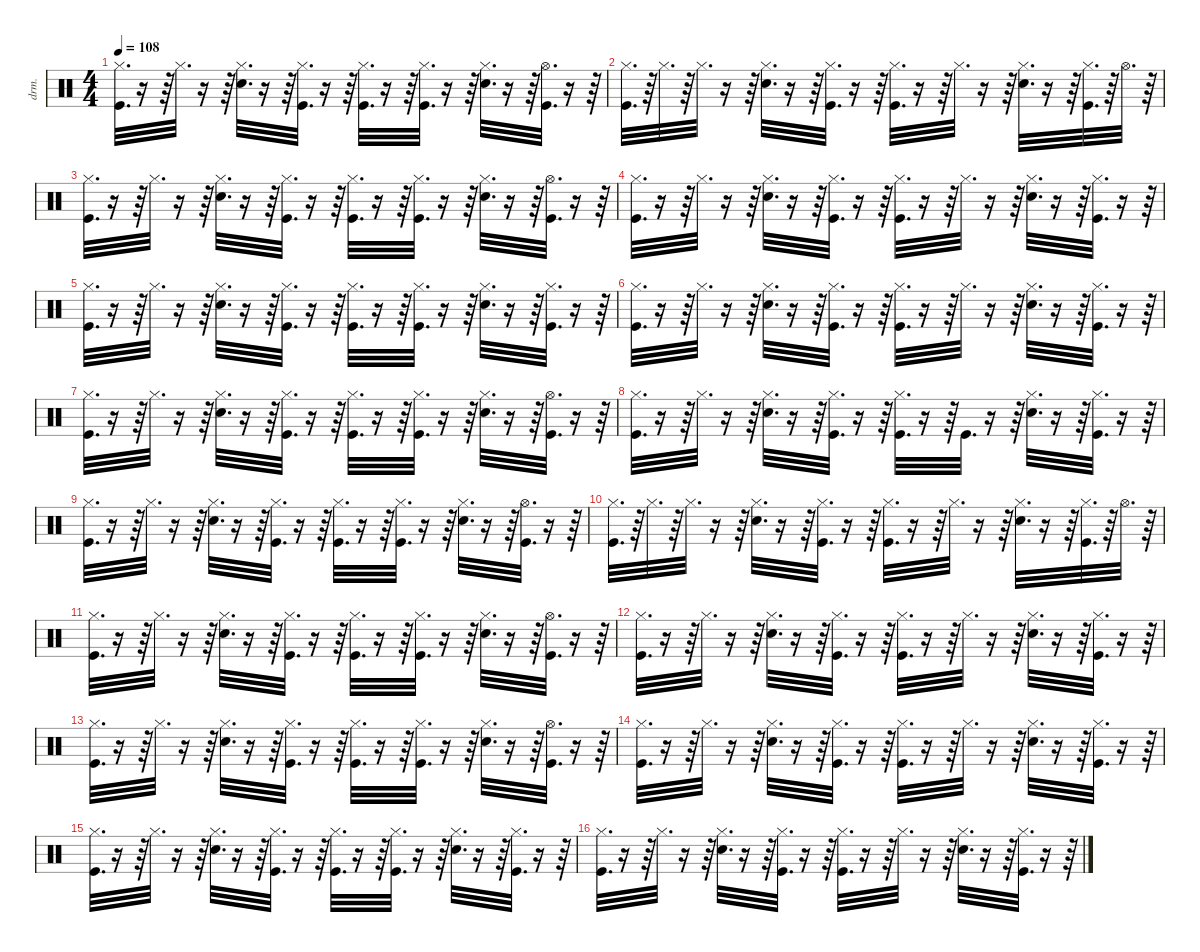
\defaultSystemsLayout 4
\hideDynamics
\bracketExtendMode nobrackets
\otherSystemsTrackNameOrientation horizontal
\track ("Percussions" "drm.") {instrument percussion}
\staff {score}
\articulation defaults
\ts (4 4)
\tempo 108
\clef neutral
\ks c
("Hi-Hat (closed)" "Kick (hit)").32{d dy f} r.16 r.64 "Hi-Hat (closed)".32{d} r.16 r.64 ("Hi-Hat (closed)" "Snare (hit) 2").32{d} r.16 r.64 ("Hi-Hat (closed)" "Kick (hit)").32{d} r.16 r.64 ("Hi-Hat (closed)" "Kick (hit)").32{d} r.16 r.64 ("Hi-Hat (closed)" "Kick (hit)").32{d} r.16 r.64 ("Hi-Hat (closed)" "Snare (hit) 2").32{d} r.16 r.64 ("Hi-Hat (open)" "Kick (hit)").32{d} r.16 r.64 |
("Hi-Hat (closed)" "Kick (hit)").32{d} r.64 "Hi-Hat (closed)".32{d} r.64 "Hi-Hat (closed)".32{d} r.16 r.64 ("Hi-Hat (closed)" "Snare (hit) 2").32{d} r.16 r.64 ("Hi-Hat (closed)" "Kick (hit)").32{d} r.16 r.64 ("Hi-Hat (closed)" "Kick (hit)").32{d} r.16 r.64 "Hi-Hat (closed)".32{d} r.16 r.64 ("Hi-Hat (closed)" "Snare (hit) 2").32{d} r.16 r.64 ("Hi-Hat (closed)" "Kick (hit)").32{d} r.64 "Hi-Hat (open)".32{d} r.64 |
("Hi-Hat (closed)" "Kick (hit)").32{d} r.16 r.64 "Hi-Hat (closed)".32{d} r.16 r.64 ("Hi-Hat (closed)" "Snare (hit) 2").32{d} r.16 r.64 ("Hi-Hat (closed)" "Kick (hit)").32{d} r.16 r.64 ("Hi-Hat (closed)" "Kick (hit)").32{d} r.16 r.64 ("Hi-Hat (closed)" "Kick (hit)").32{d} r.16 r.64 ("Hi-Hat (closed)" "Snare (hit) 2").32{d} r.16 r.64 ("Hi-Hat (open)" "Kick (hit)").32{d} r.16 r.64 |
("Hi-Hat (closed)" "Kick (hit)").32{d} r.16 r.64 "Hi-Hat (closed)".32{d} r.16 r.64 ("Hi-Hat (closed)" "Snare (hit) 2").32{d} r.16 r.64 ("Hi-Hat (closed)" "Kick (hit)").32{d} r.16 r.64 ("Hi-Hat (closed)" "Kick (hit)").32{d} r.16 r.64 "Hi-Hat (closed)".32{d} r.16 r.64 ("Hi-Hat (closed)" "Snare (hit) 2").32{d} r.16 r.64 ("Hi-Hat (closed)" "Kick (hit)").32{d} r.16 r.64 |
("Hi-Hat (closed)" "Kick (hit)").32{d} r.16 r.64 "Hi-Hat (closed)".32{d} r.16 r.64 ("Hi-Hat (closed)" "Snare (hit) 2").32{d} r.16 r.64 ("Hi-Hat (closed)" "Kick (hit)").32{d} r.16 r.64 ("Hi-Hat (closed)" "Kick (hit)").32{d} r.16 r.64 ("Hi-Hat (closed)" "Kick (hit)").32{d} r.16 r.64 ("Hi-Hat (closed)" "Snare (hit) 2").32{d} r.16 r.64 ("Hi-Hat (closed)" "Kick (hit)").32{d} r.16 r.64 |
("Hi-Hat (closed)" "Kick (hit)").32{d} r.16 r.64 "Hi-Hat (closed)".32{d} r.16 r.64 ("Hi-Hat (closed)" "Snare (hit) 2").32{d} r.16 r.64 ("Hi-Hat (closed)" "Kick (hit)").32{d} r.16 r.64 ("Hi-Hat (closed)" "Kick (hit)").32{d} r.16 r.64 "Hi-Hat (closed)".32{d} r.16 r.64 ("Hi-Hat (closed)" "Snare (hit) 2").32{d} r.16 r.64 ("Hi-Hat (closed)" "Kick (hit)").32{d} r.16 r.64 |
("Hi-Hat (closed)" "Kick (hit)").32{d} r.16 r.64 "Hi-Hat (closed)".32{d} r.16 r.64 ("Hi-Hat (closed)" "Snare (hit) 2").32{d} r.16 r.64 ("Hi-Hat (closed)" "Kick (hit)").32{d} r.16 r.64 ("Hi-Hat (closed)" "Kick (hit)").32{d} r.16 r.64 ("Hi-Hat (closed)" "Kick (hit)").32{d} r.16 r.64 ("Hi-Hat (closed)" "Snare (hit) 2").32{d} r.16 r.64 ("Hi-Hat (open)" "Kick (hit)").32{d} r.16 r.64 |
("Hi-Hat (closed)" "Kick (hit)").32{d} r.16 r.64 "Hi-Hat (closed)".32{d} r.16 r.64 ("Hi-Hat (closed)" "Snare (hit) 2").32{d} r.16 r.64 ("Hi-Hat (closed)" "Kick (hit)").32{d} r.16 r.64 ("Hi-Hat (closed)" "Kick (hit)").32{d} r.16 r.64 "Kick (hit)".32{d} r.16 r.64 ("Hi-Hat (closed)" "Snare (hit) 2").32{d} r.16 r.64 ("Hi-Hat (closed)" "Kick (hit)").32{d} r.16 r.64 |
("Hi-Hat (closed)" "Kick (hit)").32{d} r.16 r.64 "Hi-Hat (closed)".32{d} r.16 r.64 ("Hi-Hat (closed)" "Snare (hit) 2").32{d} r.16 r.64 ("Hi-Hat (closed)" "Kick (hit)").32{d} r.16 r.64 ("Hi-Hat (closed)" "Kick (hit)").32{d} r.16 r.64 ("Hi-Hat (closed)" "Kick (hit)").32{d} r.16 r.64 ("Hi-Hat (closed)" "Snare (hit) 2").32{d} r.16 r.64 ("Hi-Hat (open)" "Kick (hit)").32{d} r.16 r.64 |
("Hi-Hat (closed)" "Kick (hit)").32{d} r.64 "Hi-Hat (closed)".32{d} r.64 "Hi-Hat (closed)".32{d} r.16 r.64 ("Hi-Hat (closed)" "Snare (hit) 2").32{d} r.16 r.64 ("Hi-Hat (closed)" "Kick (hit)").32{d} r.16 r.64 ("Hi-Hat (closed)" "Kick (hit)").32{d} r.16 r.64 "Hi-Hat (closed)".32{d} r.16 r.64 ("Hi-Hat (closed)" "Snare (hit) 2").32{d} r.16 r.64 ("Hi-Hat (closed)" "Kick (hit)").32{d} r.64 "Hi-Hat (open)".32{d} r.64 |
("Hi-Hat (closed)" "Kick (hit)").32{d} r.16 r.64 "Hi-Hat (closed)".32{d} r.16 r.64 ("Hi-Hat (closed)" "Snare (hit) 2").32{d} r.16 r.64 ("Hi-Hat (closed)" "Kick (hit)").32{d} r.16 r.64 ("Hi-Hat (closed)" "Kick (hit)").32{d} r.16 r.64 ("Hi-Hat (closed)" "Kick (hit)").32{d} r.16 r.64 ("Hi-Hat (closed)" "Snare (hit) 2").32{d} r.16 r.64 ("Hi-Hat (open)" "Kick (hit)").32{d} r.16 r.64 |
("Hi-Hat (closed)" "Kick (hit)").32{d} r.16 r.64 "Hi-Hat (closed)".32{d} r.16 r.64 ("Hi-Hat (closed)" "Snare (hit) 2").32{d} r.16 r.64 ("Hi-Hat (closed)" "Kick (hit)").32{d} r.16 r.64 ("Hi-Hat (closed)" "Kick (hit)").32{d} r.16 r.64 "Hi-Hat (closed)".32{d} r.16 r.64 ("Hi-Hat (closed)" "Snare (hit) 2").32{d} r.16 r.64 ("Hi-Hat (closed)" "Kick (hit)").32{d} r.16 r.64 |
("Hi-Hat (closed)" "Kick (hit)").32{d} r.16 r.64 "Hi-Hat (closed)".32{d} r.16 r.64 ("Hi-Hat (closed)" "Snare (hit) 2").32{d} r.16 r.64 ("Hi-Hat (closed)" "Kick (hit)").32{d} r.16 r.64 ("Hi-Hat (closed)" "Kick (hit)").32{d} r.16 r.64 ("Hi-Hat (closed)" "Kick (hit)").32{d} r.16 r.64 ("Hi-Hat (closed)" "Snare (hit) 2").32{d} r.16 r.64 ("Hi-Hat (open)" "Kick (hit)").32{d} r.16 r.64 |
("Hi-Hat (closed)" "Kick (hit)").32{d} r.16 r.64 "Hi-Hat (closed)".32{d} r.16 r.64 ("Hi-Hat (closed)" "Snare (hit) 2").32{d} r.16 r.64 ("Hi-Hat (closed)" "Kick (hit)").32{d} r.16 r.64 ("Hi-Hat (closed)" "Kick (hit)").32{d} r.16 r.64 "Hi-Hat (closed)".32{d} r.16 r.64 ("Hi-Hat (closed)" "Snare (hit) 2").32{d} r.16 r.64 ("Hi-Hat (closed)" "Kick (hit)").32{d} r.16 r.64 |
("Hi-Hat (closed)" "Kick (hit)").32{d} r.16 r.64 "Hi-Hat (closed)".32{d} r.16 r.64 ("Hi-Hat (closed)" "Snare (hit) 2").32{d} r.16 r.64 ("Hi-Hat (closed)" "Kick (hit)").32{d} r.16 r.64 ("Hi-Hat (closed)" "Kick (hit)").32{d} r.16 r.64 ("Hi-Hat (closed)" "Kick (hit)").32{d} r.16 r.64 ("Hi-Hat (closed)" "Snare (hit) 2").32{d} r.16 r.64 ("Hi-Hat (closed)" "Kick (hit)").32{d} r.16 r.64 |
("Hi-Hat (closed)" "Kick (hit)").32{d} r.16 r.64 "Hi-Hat (closed)".32{d} r.16 r.64 ("Hi-Hat (closed)" "Snare (hit) 2").32{d} r.16 r.64 ("Hi-Hat (closed)" "Kick (hit)").32{d} r.16 r.64 ("Hi-Hat (closed)" "Kick (hit)").32{d} r.16 r.64 "Hi-Hat (closed)".32{d} r.16 r.64 ("Hi-Hat (closed)" "Snare (hit) 2").32{d} r.16 r.64 ("Hi-Hat (closed)" "Kick (hit)").32{d} r.16 r.64
